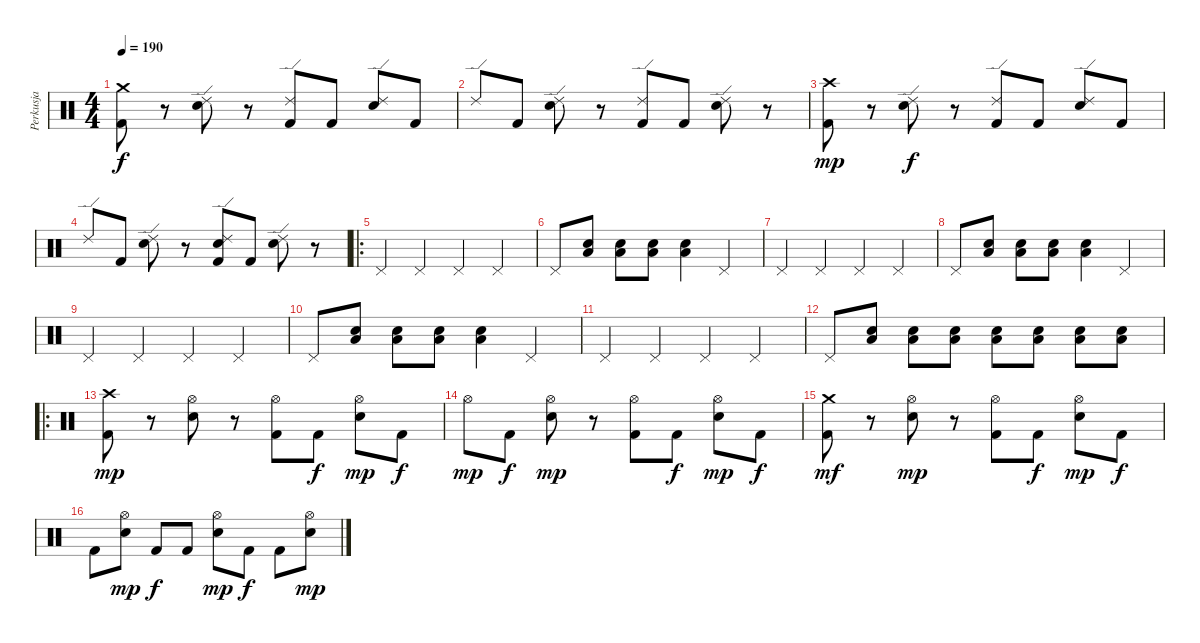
\track ("Perkusja" "Perkusja") {instrument percussion}
\staff {score}
\articulation defaults
\ts (4 4)
\tempo 190
\clef neutral
\ks c
("Crash medium (hit)" "Kick (hit) 2").8{dy f} r.8 ("Ride (edge) 2" "Snare (hit) 2").8 r.8 ("Ride (edge) 2" "Kick (hit) 2").8 "Kick (hit) 2".8 ("Ride (edge) 2" "Snare (hit) 2").8 "Kick (hit) 2".8 |
"Ride (edge) 2".8 "Kick (hit) 2".8 ("Ride (edge) 2" "Snare (hit) 2").8 r.8 ("Ride (edge) 2" "Kick (hit) 2").8 "Kick (hit) 2".8 ("Ride (edge) 2" "Snare (hit) 2").8 r.8 |
("Crash high (hit)" "Kick (hit) 2").8{dy mp} r.8 ("Ride (edge) 2" "Snare (hit) 2").8{dy f} r.8 ("Ride (edge) 2" "Kick (hit) 2").8 "Kick (hit) 2".8 ("Ride (edge) 2" "Snare (hit) 2").8 "Kick (hit) 2".8 |
"Ride (edge) 2".8 "Kick (hit) 2".8 ("Ride (edge) 2" "Snare (hit) 2").8 r.8 ("Ride (edge) 2" "Snare (hit) 2" "Kick (hit) 2").8 "Kick (hit) 2".8 ("Ride (edge) 2" "Snare (hit) 2").8 r.8 |
\ro "Pedal Hi-Hat (hit)".4 "Pedal Hi-Hat (hit)".4 "Pedal Hi-Hat (hit)".4 "Pedal Hi-Hat (hit)".4
|
"Pedal Hi-Hat (hit)".8 ("Snare (hit) 2" "Low Floor Tom (hit)").8 ("Snare (hit) 2" "Low Floor Tom (hit)").8 ("Snare (hit) 2" "Low Floor Tom (hit)").8 ("Snare (hit) 2" "Low Floor Tom (hit)").4 "Pedal Hi-Hat (hit)".4 |
"Pedal Hi-Hat (hit)".4 "Pedal Hi-Hat (hit)".4 "Pedal Hi-Hat (hit)".4 "Pedal Hi-Hat (hit)".4 |
"Pedal Hi-Hat (hit)".8 ("Snare (hit) 2" "Low Floor Tom (hit)").8 ("Snare (hit) 2" "Low Floor Tom (hit)").8 ("Snare (hit) 2" "Low Floor Tom (hit)").8 ("Snare (hit) 2" "Low Floor Tom (hit)").4 "Pedal Hi-Hat (hit)".4 |
"Pedal Hi-Hat (hit)".4 "Pedal Hi-Hat (hit)".4 "Pedal Hi-Hat (hit)".4 "Pedal Hi-Hat (hit)".4 |
"Pedal Hi-Hat (hit)".8 ("Snare (hit) 2" "Low Floor Tom (hit)").8 ("Snare (hit) 2" "Low Floor Tom (hit)").8 ("Snare (hit) 2" "Low Floor Tom (hit)").8 ("Snare (hit) 2" "Low Floor Tom (hit)").4 "Pedal Hi-Hat (hit)".4 |
"Pedal Hi-Hat (hit)".4 "Pedal Hi-Hat (hit)".4 "Pedal Hi-Hat (hit)".4 "Pedal Hi-Hat (hit)".4 |
"Pedal Hi-Hat (hit)".8 ("Snare (hit) 2" "Low Floor Tom (hit)").8 ("Snare (hit) 2" "Low Floor Tom (hit)").8 ("Snare (hit) 2" "Low Floor Tom (hit)").8 ("Snare (hit) 2" "Low Floor Tom (hit)").8 ("Snare (hit) 2" "Low Floor Tom (hit)").8 ("Snare (hit) 2" "Low Floor Tom (hit)").8 ("Snare (hit) 2" "Low Floor Tom (hit)").8 |
\ro
("Crash high (hit)" "Kick (hit) 2").8{dy mp} r.8 ("Hi-Hat (open)" "Snare (hit) 2").8 r.8 ("Hi-Hat (open)" "Kick (hit) 2").8 "Kick (hit) 2".8{dy f} ("Hi-Hat (open)" "Snare (hit) 2").8{dy mp} "Kick (hit) 2".8{dy f} |
"Hi-Hat (open)".8{dy mp} "Kick (hit) 2".8{dy f} ("Hi-Hat (open)" "Snare (hit) 2").8{dy mp} r.8 ("Hi-Hat (open)" "Kick (hit) 2").8 "Kick (hit) 2".8{dy f} ("Hi-Hat (open)" "Snare (hit) 2").8{dy mp} "Kick (hit) 2".8{dy f} |
("Crash medium (hit)" "Kick (hit) 2").8{dy mf} r.8 ("Hi-Hat (open)" "Snare (hit) 2").8{dy mp} r.8 ("Hi-Hat (open)" "Kick (hit) 2").8 "Kick (hit) 2".8{dy f} ("Hi-Hat (open)" "Snare (hit) 2").8{dy mp} "Kick (hit) 2".8{dy f} |
"Kick (hit) 2".8 ("Hi-Hat (open)" "Snare (hit) 2").8{dy mp} "Kick (hit) 2".8{dy f} "Kick (hit) 2".8 ("Hi-Hat (open)" "Snare (hit) 2").8{dy mp} "Kick (hit) 2".8{dy f} "Kick (hit) 2".8 ("Hi-Hat (open)" "Snare (hit) 2").8{dy mp}
